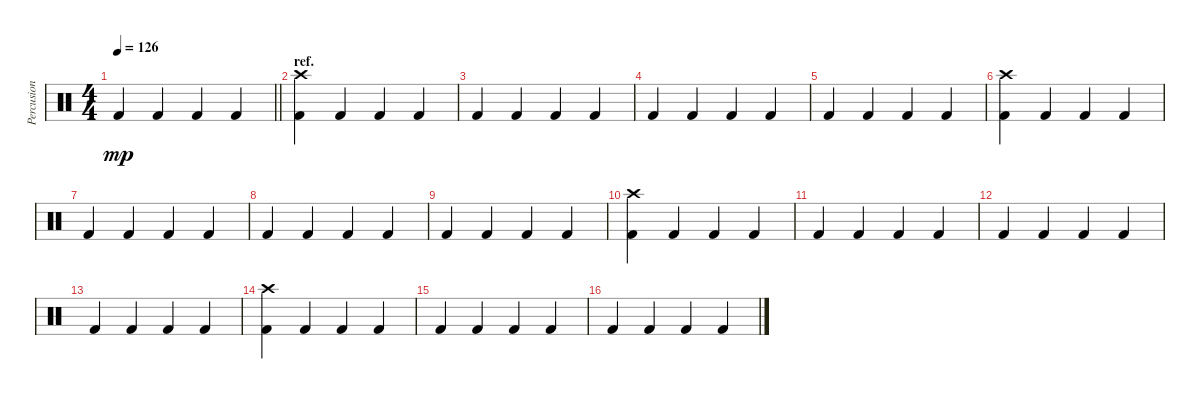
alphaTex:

\track ("Percusion" "Percusion") {instrument percussion}
\staff {score}
\articulation defaults
\ts (4 4)
\tempo 126
\clef neutral
\barLineRight lightlight
\ks c "Kick (hit) 2".4{dy mp} "Kick (hit) 2".4 "Kick (hit) 2".4 "Kick (hit) 2".4
|
\section ("" "ref.")
("Crash high (hit)" "Kick (hit) 2").4 "Kick (hit) 2".4 "Kick (hit) 2".4 "Kick (hit) 2".4 |
"Kick (hit) 2".4 "Kick (hit) 2".4 "Kick (hit) 2".4 "Kick (hit) 2".4 |
"Kick (hit) 2".4 "Kick (hit) 2".4 "Kick (hit) 2".4 "Kick (hit) 2".4 |
"Kick (hit) 2".4 "Kick (hit) 2".4 "Kick (hit) 2".4 "Kick (hit) 2".4 |
("Crash high (hit)" "Kick (hit) 2").4 "Kick (hit) 2".4 "Kick (hit) 2".4 "Kick (hit) 2".4 |
"Kick (hit) 2".4 "Kick (hit) 2".4 "Kick (hit) 2".4 "Kick (hit) 2".4 |
"Kick (hit) 2".4 "Kick (hit) 2".4 "Kick (hit) 2".4 "Kick (hit) 2".4 |
"Kick (hit) 2".4 "Kick (hit) 2".4 "Kick (hit) 2".4 "Kick (hit) 2".4 |
("Crash high (hit)" "Kick (hit) 2").4 "Kick (hit) 2".4 "Kick (hit) 2".4 "Kick (hit) 2".4 |
"Kick (hit) 2".4 "Kick (hit) 2".4 "Kick (hit) 2".4 "Kick (hit) 2".4 |
"Kick (hit) 2".4 "Kick (hit) 2".4 "Kick (hit) 2".4 "Kick (hit) 2".4 |
"Kick (hit) 2".4 "Kick (hit) 2".4 "Kick (hit) 2".4 "Kick (hit) 2".4 |
("Crash high (hit)" "Kick (hit) 2").4 "Kick (hit) 2".4 "Kick (hit) 2".4 "Kick (hit) 2".4 |
"Kick (hit) 2".4 "Kick (hit) 2".4 "Kick (hit) 2".4 "Kick (hit) 2".4 |
"Kick (hit) 2".4 "Kick (hit) 2".4 "Kick (hit) 2".4 "Kick (hit) 2".4
